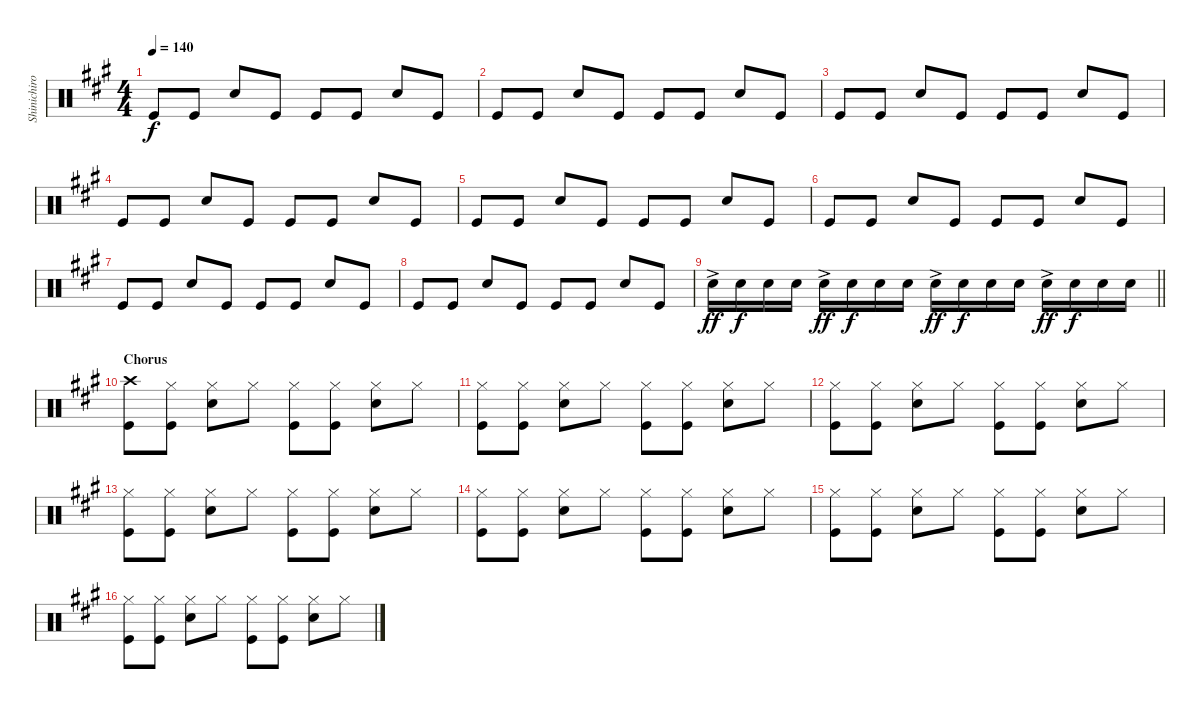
\track ("Shinichiro Drums" "Shinichiro") {instrument percussion}
\staff {score}
\articulation defaults
\ts (4 4)
\tempo 140
\clef neutral
\ks a "Kick (hit)".8{dy f} "Kick (hit)".8 "Snare (hit) 2".8 "Kick (hit)".8 "Kick (hit)".8 "Kick (hit)".8 "Snare (hit) 2".8 "Kick (hit)".8
|
"Kick (hit)".8 "Kick (hit)".8 "Snare (hit) 2".8 "Kick (hit)".8 "Kick (hit)".8 "Kick (hit)".8 "Snare (hit) 2".8 "Kick (hit)".8 |
"Kick (hit)".8 "Kick (hit)".8 "Snare (hit) 2".8 "Kick (hit)".8 "Kick (hit)".8 "Kick (hit)".8 "Snare (hit) 2".8 "Kick (hit)".8 |
"Kick (hit)".8 "Kick (hit)".8 "Snare (hit) 2".8 "Kick (hit)".8 "Kick (hit)".8 "Kick (hit)".8 "Snare (hit) 2".8 "Kick (hit)".8 |
"Kick (hit)".8 "Kick (hit)".8 "Snare (hit) 2".8 "Kick (hit)".8 "Kick (hit)".8 "Kick (hit)".8 "Snare (hit) 2".8 "Kick (hit)".8 |
"Kick (hit)".8 "Kick (hit)".8 "Snare (hit) 2".8 "Kick (hit)".8 "Kick (hit)".8 "Kick (hit)".8 "Snare (hit) 2".8 "Kick (hit)".8 |
"Kick (hit)".8 "Kick (hit)".8 "Snare (hit) 2".8 "Kick (hit)".8 "Kick (hit)".8 "Kick (hit)".8 "Snare (hit) 2".8 "Kick (hit)".8 |
"Kick (hit)".8 "Kick (hit)".8 "Snare (hit) 2".8 "Kick (hit)".8 "Kick (hit)".8 "Kick (hit)".8 "Snare (hit) 2".8 "Kick (hit)".8 |
\barLineRight lightlight "Snare (hit) 2"{ac}.16{dy ff} "Snare (hit) 2".16{dy f} "Snare (hit) 2".16 "Snare (hit) 2".16 "Snare (hit) 2"{ac}.16{dy ff} "Snare (hit) 2".16{dy f} "Snare (hit) 2".16 "Snare (hit) 2".16 "Snare (hit) 2"{ac}.16{dy ff} "Snare (hit) 2".16{dy f} "Snare (hit) 2".16 "Snare (hit) 2".16 "Snare (hit) 2"{ac}.16{dy ff} "Snare (hit) 2".16{dy f} "Snare (hit) 2".16 "Snare (hit) 2".16
|
\section ("" "Chorus")
("Crash high (hit)" "Kick (hit)").8 ("Hi-Hat (closed)" "Kick (hit)").8 ("Hi-Hat (closed)" "Snare (hit) 2").8 "Hi-Hat (closed)".8 ("Hi-Hat (closed)" "Kick (hit)").8 ("Hi-Hat (closed)" "Kick (hit)").8 ("Hi-Hat (closed)" "Snare (hit) 2").8 "Hi-Hat (closed)".8 |
("Hi-Hat (closed)" "Kick (hit)").8 ("Hi-Hat (closed)" "Kick (hit)").8 ("Hi-Hat (closed)" "Snare (hit) 2").8 "Hi-Hat (closed)".8 ("Hi-Hat (closed)" "Kick (hit)").8 ("Hi-Hat (closed)" "Kick (hit)").8 ("Hi-Hat (closed)" "Snare (hit) 2").8 "Hi-Hat (closed)".8 |
("Hi-Hat (closed)" "Kick (hit)").8 ("Hi-Hat (closed)" "Kick (hit)").8 ("Hi-Hat (closed)" "Snare (hit) 2").8 "Hi-Hat (closed)".8 ("Hi-Hat (closed)" "Kick (hit)").8 ("Hi-Hat (closed)" "Kick (hit)").8 ("Hi-Hat (closed)" "Snare (hit) 2").8 "Hi-Hat (closed)".8 |
("Hi-Hat (closed)" "Kick (hit)").8 ("Hi-Hat (closed)" "Kick (hit)").8 ("Hi-Hat (closed)" "Snare (hit) 2").8 "Hi-Hat (closed)".8 ("Hi-Hat (closed)" "Kick (hit)").8 ("Hi-Hat (closed)" "Kick (hit)").8 ("Hi-Hat (closed)" "Snare (hit) 2").8 "Hi-Hat (closed)".8 |
("Hi-Hat (closed)" "Kick (hit)").8 ("Hi-Hat (closed)" "Kick (hit)").8 ("Hi-Hat (closed)" "Snare (hit) 2").8 "Hi-Hat (closed)".8 ("Hi-Hat (closed)" "Kick (hit)").8 ("Hi-Hat (closed)" "Kick (hit)").8 ("Hi-Hat (closed)" "Snare (hit) 2").8 "Hi-Hat (closed)".8 |
("Hi-Hat (closed)" "Kick (hit)").8 ("Hi-Hat (closed)" "Kick (hit)").8 ("Hi-Hat (closed)" "Snare (hit) 2").8 "Hi-Hat (closed)".8 ("Hi-Hat (closed)" "Kick (hit)").8 ("Hi-Hat (closed)" "Kick (hit)").8 ("Hi-Hat (closed)" "Snare (hit) 2").8 "Hi-Hat (closed)".8 |
("Hi-Hat (closed)" "Kick (hit)").8 ("Hi-Hat (closed)" "Kick (hit)").8 ("Hi-Hat (closed)" "Snare (hit) 2").8 "Hi-Hat (closed)".8 ("Hi-Hat (closed)" "Kick (hit)").8 ("Hi-Hat (closed)" "Kick (hit)").8 ("Hi-Hat (closed)" "Snare (hit) 2").8 "Hi-Hat (closed)".8
